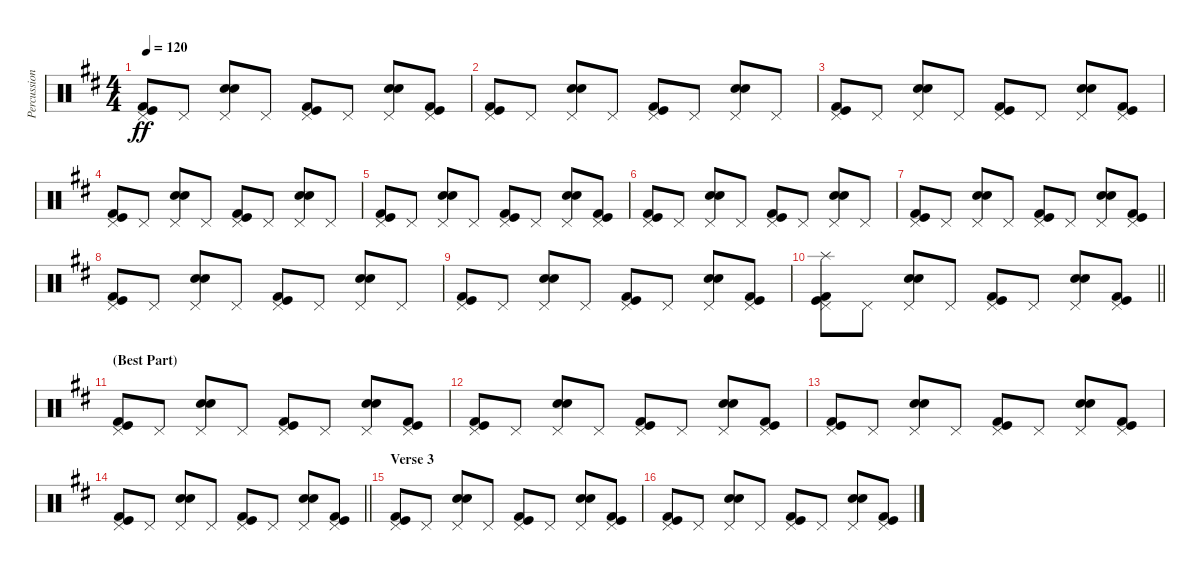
\track ("Percussion" "Percussion") {instrument percussion}
\staff {score}
\articulation defaults
\ts (4 4)
\tempo 120
\clef neutral
\ks d
("Pedal Hi-Hat (hit)" "Kick (hit)" "Kick (hit) 2").8{dy ff} "Pedal Hi-Hat (hit)".8 ("Electric Snare (hit)" "Snare (hit) 2" "Pedal Hi-Hat (hit)").8 "Pedal Hi-Hat (hit)".8 ("Pedal Hi-Hat (hit)" "Kick (hit)" "Kick (hit) 2").8 "Pedal Hi-Hat (hit)".8 ("Electric Snare (hit)" "Snare (hit) 2" "Pedal Hi-Hat (hit)").8 ("Pedal Hi-Hat (hit)" "Kick (hit)" "Kick (hit) 2").8 |
("Pedal Hi-Hat (hit)" "Kick (hit)" "Kick (hit) 2").8 "Pedal Hi-Hat (hit)".8 ("Electric Snare (hit)" "Snare (hit) 2" "Pedal Hi-Hat (hit)").8 "Pedal Hi-Hat (hit)".8 ("Pedal Hi-Hat (hit)" "Kick (hit)" "Kick (hit) 2").8 "Pedal Hi-Hat (hit)".8 ("Electric Snare (hit)" "Snare (hit) 2" "Pedal Hi-Hat (hit)").8 "Pedal Hi-Hat (hit)".8 |
("Pedal Hi-Hat (hit)" "Kick (hit)" "Kick (hit) 2").8 "Pedal Hi-Hat (hit)".8 ("Electric Snare (hit)" "Snare (hit) 2" "Pedal Hi-Hat (hit)").8 "Pedal Hi-Hat (hit)".8 ("Pedal Hi-Hat (hit)" "Kick (hit)" "Kick (hit) 2").8 "Pedal Hi-Hat (hit)".8 ("Electric Snare (hit)" "Snare (hit) 2" "Pedal Hi-Hat (hit)").8 ("Pedal Hi-Hat (hit)" "Kick (hit)" "Kick (hit) 2").8 |
("Pedal Hi-Hat (hit)" "Kick (hit)" "Kick (hit) 2").8 "Pedal Hi-Hat (hit)".8 ("Electric Snare (hit)" "Snare (hit) 2" "Pedal Hi-Hat (hit)").8 "Pedal Hi-Hat (hit)".8 ("Pedal Hi-Hat (hit)" "Kick (hit)" "Kick (hit) 2").8 "Pedal Hi-Hat (hit)".8 ("Electric Snare (hit)" "Snare (hit) 2" "Pedal Hi-Hat (hit)").8 "Pedal Hi-Hat (hit)".8 |
("Pedal Hi-Hat (hit)" "Kick (hit)" "Kick (hit) 2").8 "Pedal Hi-Hat (hit)".8 ("Electric Snare (hit)" "Snare (hit) 2" "Pedal Hi-Hat (hit)").8 "Pedal Hi-Hat (hit)".8 ("Pedal Hi-Hat (hit)" "Kick (hit)" "Kick (hit) 2").8 "Pedal Hi-Hat (hit)".8 ("Electric Snare (hit)" "Snare (hit) 2" "Pedal Hi-Hat (hit)").8 ("Pedal Hi-Hat (hit)" "Kick (hit)" "Kick (hit) 2").8 |
("Pedal Hi-Hat (hit)" "Kick (hit)" "Kick (hit) 2").8 "Pedal Hi-Hat (hit)".8 ("Electric Snare (hit)" "Snare (hit) 2" "Pedal Hi-Hat (hit)").8 "Pedal Hi-Hat (hit)".8 ("Pedal Hi-Hat (hit)" "Kick (hit)" "Kick (hit) 2").8 "Pedal Hi-Hat (hit)".8 ("Electric Snare (hit)" "Snare (hit) 2" "Pedal Hi-Hat (hit)").8 "Pedal Hi-Hat (hit)".8 |
("Pedal Hi-Hat (hit)" "Kick (hit)" "Kick (hit) 2").8 "Pedal Hi-Hat (hit)".8 ("Electric Snare (hit)" "Snare (hit) 2" "Pedal Hi-Hat (hit)").8 "Pedal Hi-Hat (hit)".8 ("Pedal Hi-Hat (hit)" "Kick (hit)" "Kick (hit) 2").8 "Pedal Hi-Hat (hit)".8 ("Electric Snare (hit)" "Snare (hit) 2" "Pedal Hi-Hat (hit)").8 ("Pedal Hi-Hat (hit)" "Kick (hit)" "Kick (hit) 2").8 |
("Pedal Hi-Hat (hit)" "Kick (hit)" "Kick (hit) 2").8 "Pedal Hi-Hat (hit)".8 ("Electric Snare (hit)" "Snare (hit) 2" "Pedal Hi-Hat (hit)").8 "Pedal Hi-Hat (hit)".8 ("Pedal Hi-Hat (hit)" "Kick (hit)" "Kick (hit) 2").8 "Pedal Hi-Hat (hit)".8 ("Electric Snare (hit)" "Snare (hit) 2" "Pedal Hi-Hat (hit)").8 "Pedal Hi-Hat (hit)".8 |
("Pedal Hi-Hat (hit)" "Kick (hit)" "Kick (hit) 2").8 "Pedal Hi-Hat (hit)".8 ("Electric Snare (hit)" "Snare (hit) 2" "Pedal Hi-Hat (hit)").8 "Pedal Hi-Hat (hit)".8 ("Pedal Hi-Hat (hit)" "Kick (hit)" "Kick (hit) 2").8 "Pedal Hi-Hat (hit)".8 ("Electric Snare (hit)" "Snare (hit) 2" "Pedal Hi-Hat (hit)").8 ("Pedal Hi-Hat (hit)" "Kick (hit)" "Kick (hit) 2").8 |
\barLineRight lightlight
("Splash (hit)" "Pedal Hi-Hat (hit)" "Kick (hit)" "Kick (hit) 2").8 "Pedal Hi-Hat (hit)".8 ("Electric Snare (hit)" "Snare (hit) 2" "Pedal Hi-Hat (hit)").8 "Pedal Hi-Hat (hit)".8 ("Pedal Hi-Hat (hit)" "Kick (hit)" "Kick (hit) 2").8 "Pedal Hi-Hat (hit)".8 ("Electric Snare (hit)" "Snare (hit) 2" "Pedal Hi-Hat (hit)").8 ("Pedal Hi-Hat (hit)" "Kick (hit)" "Kick (hit) 2").8 |
\section ("" "(Best Part)")
("Pedal Hi-Hat (hit)" "Kick (hit)" "Kick (hit) 2").8 "Pedal Hi-Hat (hit)".8 ("Electric Snare (hit)" "Snare (hit) 2" "Pedal Hi-Hat (hit)").8 "Pedal Hi-Hat (hit)".8 ("Pedal Hi-Hat (hit)" "Kick (hit)" "Kick (hit) 2").8 "Pedal Hi-Hat (hit)".8 ("Electric Snare (hit)" "Snare (hit) 2" "Pedal Hi-Hat (hit)").8 ("Pedal Hi-Hat (hit)" "Kick (hit)" "Kick (hit) 2").8 |
("Pedal Hi-Hat (hit)" "Kick (hit)" "Kick (hit) 2").8 "Pedal Hi-Hat (hit)".8 ("Electric Snare (hit)" "Snare (hit) 2" "Pedal Hi-Hat (hit)").8 "Pedal Hi-Hat (hit)".8 ("Pedal Hi-Hat (hit)" "Kick (hit)" "Kick (hit) 2").8 "Pedal Hi-Hat (hit)".8 ("Electric Snare (hit)" "Snare (hit) 2" "Pedal Hi-Hat (hit)").8 ("Pedal Hi-Hat (hit)" "Kick (hit)" "Kick (hit) 2").8 |
("Pedal Hi-Hat (hit)" "Kick (hit)" "Kick (hit) 2").8 "Pedal Hi-Hat (hit)".8 ("Electric Snare (hit)" "Snare (hit) 2" "Pedal Hi-Hat (hit)").8 "Pedal Hi-Hat (hit)".8 ("Pedal Hi-Hat (hit)" "Kick (hit)" "Kick (hit) 2").8 "Pedal Hi-Hat (hit)".8 ("Electric Snare (hit)" "Snare (hit) 2" "Pedal Hi-Hat (hit)").8 ("Pedal Hi-Hat (hit)" "Kick (hit)" "Kick (hit) 2").8 |
\barLineRight lightlight
("Pedal Hi-Hat (hit)" "Kick (hit)" "Kick (hit) 2").8 "Pedal Hi-Hat (hit)".8 ("Electric Snare (hit)" "Snare (hit) 2" "Pedal Hi-Hat (hit)").8 "Pedal Hi-Hat (hit)".8 ("Pedal Hi-Hat (hit)" "Kick (hit)" "Kick (hit) 2").8 "Pedal Hi-Hat (hit)".8 ("Electric Snare (hit)" "Snare (hit) 2" "Pedal Hi-Hat (hit)").8 ("Pedal Hi-Hat (hit)" "Kick (hit)" "Kick (hit) 2").8 |
\section ("" "Verse 3")
("Pedal Hi-Hat (hit)" "Kick (hit)" "Kick (hit) 2").8 "Pedal Hi-Hat (hit)".8 ("Electric Snare (hit)" "Snare (hit) 2" "Pedal Hi-Hat (hit)").8 "Pedal Hi-Hat (hit)".8 ("Pedal Hi-Hat (hit)" "Kick (hit)" "Kick (hit) 2").8 "Pedal Hi-Hat (hit)".8 ("Electric Snare (hit)" "Snare (hit) 2" "Pedal Hi-Hat (hit)").8 ("Pedal Hi-Hat (hit)" "Kick (hit)" "Kick (hit) 2").8 |
("Pedal Hi-Hat (hit)" "Kick (hit)" "Kick (hit) 2").8 "Pedal Hi-Hat (hit)".8 ("Electric Snare (hit)" "Snare (hit) 2" "Pedal Hi-Hat (hit)").8 "Pedal Hi-Hat (hit)".8 ("Pedal Hi-Hat (hit)" "Kick (hit)" "Kick (hit) 2").8 "Pedal Hi-Hat (hit)".8 ("Electric Snare (hit)" "Snare (hit) 2" "Pedal Hi-Hat (hit)").8 ("Pedal Hi-Hat (hit)" "Kick (hit)" "Kick (hit) 2").8
